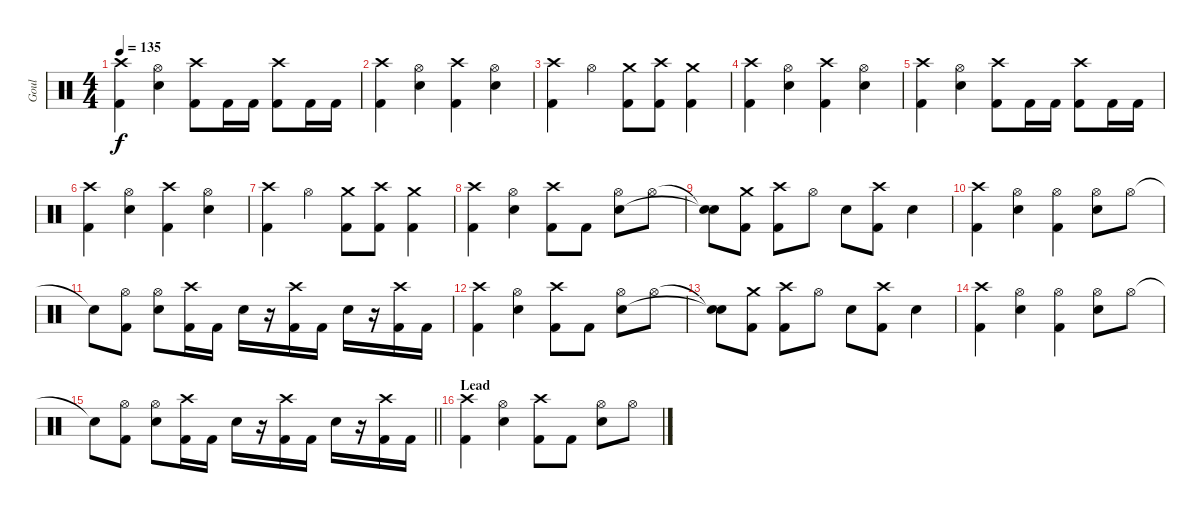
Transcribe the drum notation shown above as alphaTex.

\track ("Goul" "Goul") {instrument percussion}
\staff {score}
\articulation defaults
\ts (4 4)
\tempo 135
\clef neutral
\ks c
("Crash high (hit)" "Kick (hit) 2").4{dy f} ("Hi-Hat (open)" "Electric Snare (hit)").4 ("Crash high (hit)" "Kick (hit) 2").8 "Kick (hit) 2".16 "Kick (hit) 2".16 ("Crash high (hit)" "Kick (hit) 2").8 "Kick (hit) 2".16 "Kick (hit) 2".16 |
("Crash high (hit)" "Kick (hit) 2").4 ("Hi-Hat (open)" "Electric Snare (hit)").4 ("Crash high (hit)" "Kick (hit) 2").4 ("Hi-Hat (open)" "Electric Snare (hit)").4 |
("Crash high (hit)" "Kick (hit) 2").4 "Hi-Hat (open)".4 ("Crash medium (hit)" "Kick (hit) 2").8 ("Crash high (hit)" "Kick (hit) 2").8 ("Crash medium (hit)" "Kick (hit) 2").4 |
("Crash high (hit)" "Kick (hit) 2").4 ("Hi-Hat (open)" "Electric Snare (hit)").4 ("Crash high (hit)" "Kick (hit) 2").4 ("Hi-Hat (open)" "Electric Snare (hit)").4 |
("Crash high (hit)" "Kick (hit) 2").4 ("Hi-Hat (open)" "Electric Snare (hit)").4 ("Crash high (hit)" "Kick (hit) 2").8 "Kick (hit) 2".16 "Kick (hit) 2".16 ("Crash high (hit)" "Kick (hit) 2").8 "Kick (hit) 2".16 "Kick (hit) 2".16 |
("Crash high (hit)" "Kick (hit) 2").4 ("Hi-Hat (open)" "Electric Snare (hit)").4 ("Crash high (hit)" "Kick (hit) 2").4 ("Hi-Hat (open)" "Electric Snare (hit)").4 |
("Crash high (hit)" "Kick (hit) 2").4 "Hi-Hat (open)".4 ("Crash medium (hit)" "Kick (hit) 2").8 ("Crash high (hit)" "Kick (hit) 2").8 ("Crash medium (hit)" "Kick (hit) 2").4 |
("Crash high (hit)" "Kick (hit) 2").4 ("Hi-Hat (open)" "Electric Snare (hit)").4 ("Crash high (hit)" "Kick (hit) 2").8 "Kick (hit) 2".8 ("Hi-Hat (open)" "Electric Snare (hit)").8 "Hi-Hat (open)".8 |
("Snare (hit)"{t} "Snare (hit)"{t}).8 ("Crash medium (hit)" "Kick (hit) 2").8 ("Crash high (hit)" "Kick (hit) 2").8 "Hi-Hat (open)".8 "Electric Snare (hit)".8 ("Crash high (hit)" "Kick (hit) 2").8 "Electric Snare (hit)".4 |
("Crash high (hit)" "Kick (hit) 2").4 ("Hi-Hat (open)" "Electric Snare (hit)").4 ("Hi-Hat (open)" "Kick (hit) 2").4 ("Hi-Hat (open)" "Electric Snare (hit)").8 "Hi-Hat (open)".8 |
"Snare (hit)"{t}.8 ("Hi-Hat (open)" "Kick (hit) 2").8 ("Electric Snare (hit)" "Hi-Hat (open)").8 ("Crash high (hit)" "Kick (hit) 2").16 "Kick (hit) 2".16 "Electric Snare (hit)".16 r.16 ("Crash high (hit)" "Kick (hit) 2").16 "Kick (hit) 2".16 "Electric Snare (hit)".16 r.16 ("Crash high (hit)" "Kick (hit) 2").16 "Kick (hit) 2".16 |
("Crash high (hit)" "Kick (hit) 2").4 ("Hi-Hat (open)" "Electric Snare (hit)").4 ("Crash high (hit)" "Kick (hit) 2").8 "Kick (hit) 2".8 ("Hi-Hat (open)" "Electric Snare (hit)").8 "Hi-Hat (open)".8 |
("Snare (hit)"{t} "Snare (hit)"{t}).8 ("Crash medium (hit)" "Kick (hit) 2").8 ("Crash high (hit)" "Kick (hit) 2").8 "Hi-Hat (open)".8 "Electric Snare (hit)".8 ("Crash high (hit)" "Kick (hit) 2").8 "Electric Snare (hit)".4 |
("Crash high (hit)" "Kick (hit) 2").4 ("Hi-Hat (open)" "Electric Snare (hit)").4 ("Hi-Hat (open)" "Kick (hit) 2").4 ("Hi-Hat (open)" "Electric Snare (hit)").8 "Hi-Hat (open)".8 |
\barLineRight lightlight "Snare (hit)"{t}.8
("Hi-Hat (open)" "Kick (hit) 2").8 ("Electric Snare (hit)" "Hi-Hat (open)").8 ("Crash high (hit)" "Kick (hit) 2").16 "Kick (hit) 2".16 "Electric Snare (hit)".16 r.16 ("Crash high (hit)" "Kick (hit) 2").16 "Kick (hit) 2".16 "Electric Snare (hit)".16 r.16 ("Crash high (hit)" "Kick (hit) 2").16 "Kick (hit) 2".16 |
\section ("" "Lead")
("Crash high (hit)" "Kick (hit) 2").4 ("Hi-Hat (open)" "Electric Snare (hit)").4 ("Crash high (hit)" "Kick (hit) 2").8 "Kick (hit) 2".8 ("Hi-Hat (open)" "Electric Snare (hit)").8 "Hi-Hat (open)".8
